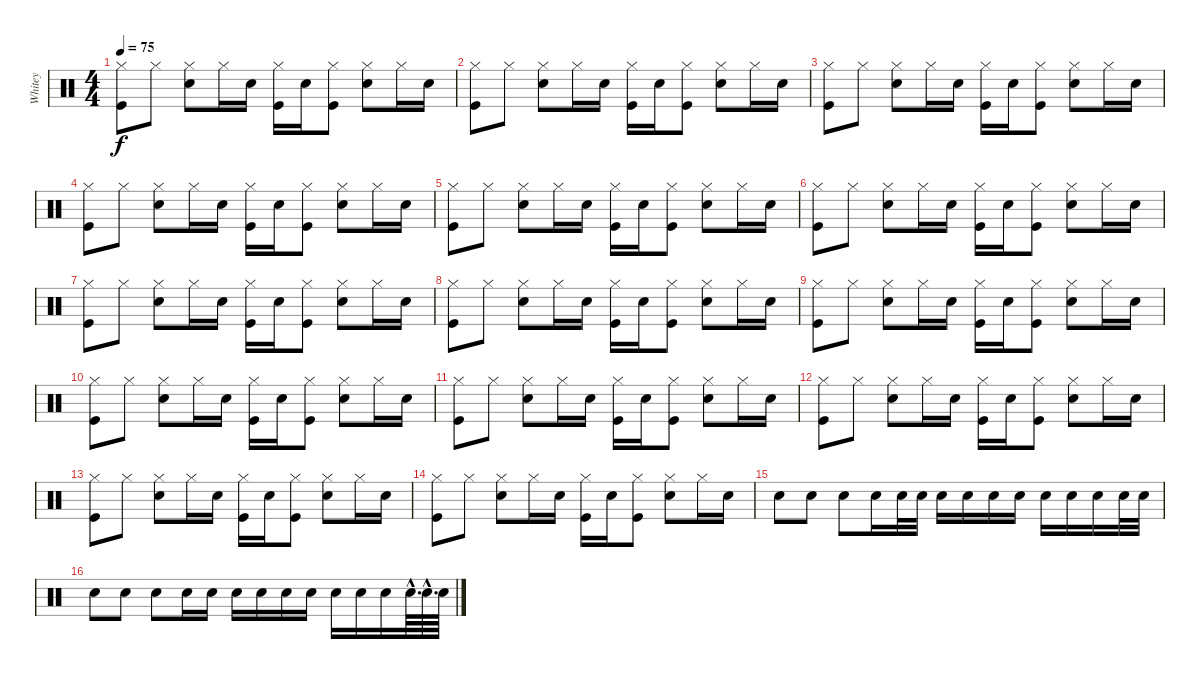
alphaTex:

\track ("Whitey" "Whitey") {instrument percussion}
\staff {score}
\articulation defaults
\ts (4 4)
\tempo 75
\clef neutral
\ks c
("Hi-Hat (closed)" "Kick (hit)").8{dy f} "Hi-Hat (closed)".8 ("Hi-Hat (closed)" "Snare (hit) 2").8 "Hi-Hat (closed)".16 "Snare (hit) 2".16 ("Hi-Hat (closed)" "Kick (hit)").16 "Snare (hit) 2".16 ("Hi-Hat (closed)" "Kick (hit)").8 ("Hi-Hat (closed)" "Snare (hit) 2").8 "Hi-Hat (closed)".16 "Snare (hit) 2".16 |
("Hi-Hat (closed)" "Kick (hit)").8 "Hi-Hat (closed)".8 ("Hi-Hat (closed)" "Snare (hit) 2").8 "Hi-Hat (closed)".16 "Snare (hit) 2".16 ("Hi-Hat (closed)" "Kick (hit)").16 "Snare (hit) 2".16 ("Hi-Hat (closed)" "Kick (hit)").8 ("Hi-Hat (closed)" "Snare (hit) 2").8 "Hi-Hat (closed)".16 "Snare (hit) 2".16 |
("Hi-Hat (closed)" "Kick (hit)").8 "Hi-Hat (closed)".8 ("Hi-Hat (closed)" "Snare (hit) 2").8 "Hi-Hat (closed)".16 "Snare (hit) 2".16 ("Hi-Hat (closed)" "Kick (hit)").16 "Snare (hit) 2".16 ("Hi-Hat (closed)" "Kick (hit)").8 ("Hi-Hat (closed)" "Snare (hit) 2").8 "Hi-Hat (closed)".16 "Snare (hit) 2".16 |
("Hi-Hat (closed)" "Kick (hit)").8 "Hi-Hat (closed)".8 ("Hi-Hat (closed)" "Snare (hit) 2").8 "Hi-Hat (closed)".16 "Snare (hit) 2".16 ("Hi-Hat (closed)" "Kick (hit)").16 "Snare (hit) 2".16 ("Hi-Hat (closed)" "Kick (hit)").8 ("Hi-Hat (closed)" "Snare (hit) 2").8 "Hi-Hat (closed)".16 "Snare (hit) 2".16 |
("Hi-Hat (closed)" "Kick (hit)").8 "Hi-Hat (closed)".8 ("Hi-Hat (closed)" "Snare (hit) 2").8 "Hi-Hat (closed)".16 "Snare (hit) 2".16 ("Hi-Hat (closed)" "Kick (hit)").16 "Snare (hit) 2".16 ("Hi-Hat (closed)" "Kick (hit)").8 ("Hi-Hat (closed)" "Snare (hit) 2").8 "Hi-Hat (closed)".16 "Snare (hit) 2".16 |
("Hi-Hat (closed)" "Kick (hit)").8 "Hi-Hat (closed)".8 ("Hi-Hat (closed)" "Snare (hit) 2").8 "Hi-Hat (closed)".16 "Snare (hit) 2".16 ("Hi-Hat (closed)" "Kick (hit)").16 "Snare (hit) 2".16 ("Hi-Hat (closed)" "Kick (hit)").8 ("Hi-Hat (closed)" "Snare (hit) 2").8 "Hi-Hat (closed)".16 "Snare (hit) 2".16 |
("Hi-Hat (closed)" "Kick (hit)").8 "Hi-Hat (closed)".8 ("Hi-Hat (closed)" "Snare (hit) 2").8 "Hi-Hat (closed)".16 "Snare (hit) 2".16 ("Hi-Hat (closed)" "Kick (hit)").16 "Snare (hit) 2".16 ("Hi-Hat (closed)" "Kick (hit)").8 ("Hi-Hat (closed)" "Snare (hit) 2").8 "Hi-Hat (closed)".16 "Snare (hit) 2".16 |
("Hi-Hat (closed)" "Kick (hit)").8 "Hi-Hat (closed)".8 ("Hi-Hat (closed)" "Snare (hit) 2").8 "Hi-Hat (closed)".16 "Snare (hit) 2".16 ("Hi-Hat (closed)" "Kick (hit)").16 "Snare (hit) 2".16 ("Hi-Hat (closed)" "Kick (hit)").8 ("Hi-Hat (closed)" "Snare (hit) 2").8 "Hi-Hat (closed)".16 "Snare (hit) 2".16 |
("Hi-Hat (closed)" "Kick (hit)").8 "Hi-Hat (closed)".8 ("Hi-Hat (closed)" "Snare (hit) 2").8 "Hi-Hat (closed)".16 "Snare (hit) 2".16 ("Hi-Hat (closed)" "Kick (hit)").16 "Snare (hit) 2".16 ("Hi-Hat (closed)" "Kick (hit)").8 ("Hi-Hat (closed)" "Snare (hit) 2").8 "Hi-Hat (closed)".16 "Snare (hit) 2".16 |
("Hi-Hat (closed)" "Kick (hit)").8 "Hi-Hat (closed)".8 ("Hi-Hat (closed)" "Snare (hit) 2").8 "Hi-Hat (closed)".16 "Snare (hit) 2".16 ("Hi-Hat (closed)" "Kick (hit)").16 "Snare (hit) 2".16 ("Hi-Hat (closed)" "Kick (hit)").8 ("Hi-Hat (closed)" "Snare (hit) 2").8 "Hi-Hat (closed)".16 "Snare (hit) 2".16 |
("Hi-Hat (closed)" "Kick (hit)").8 "Hi-Hat (closed)".8 ("Hi-Hat (closed)" "Snare (hit) 2").8 "Hi-Hat (closed)".16 "Snare (hit) 2".16 ("Hi-Hat (closed)" "Kick (hit)").16 "Snare (hit) 2".16 ("Hi-Hat (closed)" "Kick (hit)").8 ("Hi-Hat (closed)" "Snare (hit) 2").8 "Hi-Hat (closed)".16 "Snare (hit) 2".16 |
("Hi-Hat (closed)" "Kick (hit)").8 "Hi-Hat (closed)".8 ("Hi-Hat (closed)" "Snare (hit) 2").8 "Hi-Hat (closed)".16 "Snare (hit) 2".16 ("Hi-Hat (closed)" "Kick (hit)").16 "Snare (hit) 2".16 ("Hi-Hat (closed)" "Kick (hit)").8 ("Hi-Hat (closed)" "Snare (hit) 2").8 "Hi-Hat (closed)".16 "Snare (hit) 2".16 |
("Hi-Hat (closed)" "Kick (hit)").8 "Hi-Hat (closed)".8 ("Hi-Hat (closed)" "Snare (hit) 2").8 "Hi-Hat (closed)".16 "Snare (hit) 2".16 ("Hi-Hat (closed)" "Kick (hit)").16 "Snare (hit) 2".16 ("Hi-Hat (closed)" "Kick (hit)").8 ("Hi-Hat (closed)" "Snare (hit) 2").8 "Hi-Hat (closed)".16 "Snare (hit) 2".16 |
("Hi-Hat (closed)" "Kick (hit)").8 "Hi-Hat (closed)".8 ("Hi-Hat (closed)" "Snare (hit) 2").8 "Hi-Hat (closed)".16 "Snare (hit) 2".16 ("Hi-Hat (closed)" "Kick (hit)").16 "Snare (hit) 2".16 ("Hi-Hat (closed)" "Kick (hit)").8 ("Hi-Hat (closed)" "Snare (hit) 2").8 "Hi-Hat (closed)".16 "Snare (hit) 2".16 |
"Snare (hit) 2".8 "Snare (hit) 2".8 "Snare (hit) 2".8 "Snare (hit) 2".16 "Snare (hit) 2".32 "Snare (hit) 2".32 "Snare (hit) 2".16 "Snare (hit) 2".16 "Snare (hit) 2".16 "Snare (hit) 2".16 "Snare (hit) 2".16 "Snare (hit) 2".16 "Snare (hit) 2".16 "Snare (hit) 2".32 "Snare (hit) 2".32 |
"Snare (hit) 2".8 "Snare (hit) 2".8 "Snare (hit) 2".8 "Snare (hit) 2".16 "Snare (hit) 2".16 "Snare (hit) 2".16 "Snare (hit) 2".16 "Snare (hit) 2".16 "Snare (hit) 2".16 "Snare (hit) 2".16 "Snare (hit) 2".16 "Snare (hit) 2".16 "Snare (hit) 2"{hac}.64{d} "Snare (hit) 2"{hac}.64{d} "Snare (hit) 2".64
